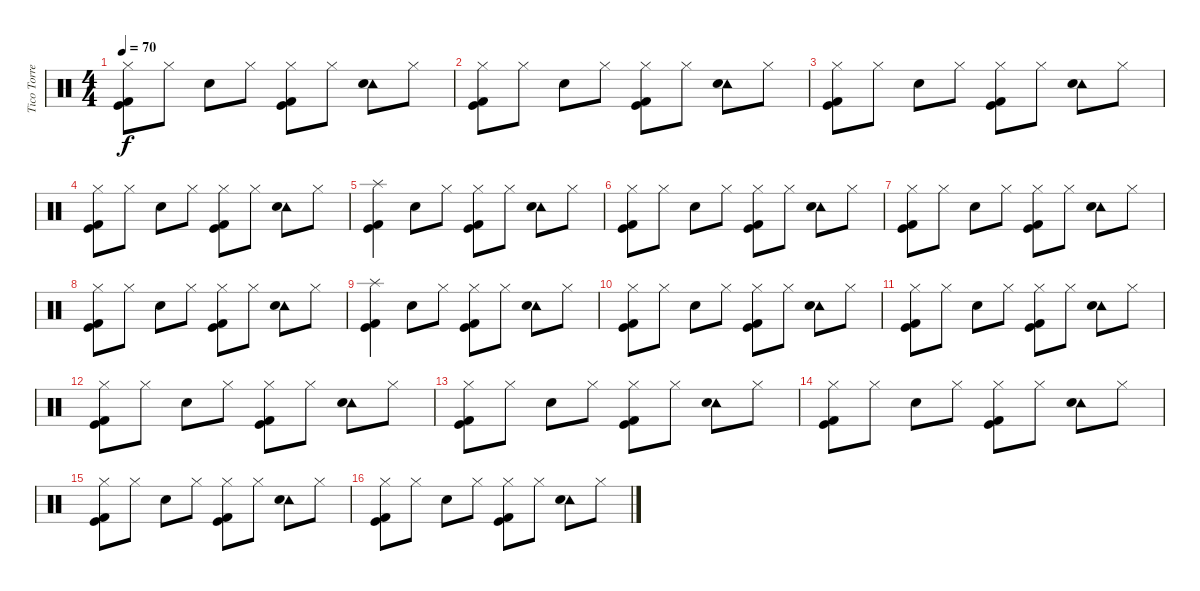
\track ("Tico Torres" "Tico Torre") {instrument percussion}
\staff {score}
\articulation defaults
\ts (4 4)
\tempo 70
\clef neutral
\ks c
("Hi-Hat (closed)" "Kick (hit) 2" "Kick (hit)").8{dy f} "Hi-Hat (closed)".8 "Snare (hit) 2".8 "Hi-Hat (closed)".8 ("Hi-Hat (closed)" "Kick (hit) 2" "Kick (hit)").8 "Hi-Hat (closed)".8 ("Tambourine (hit)" "Snare (hit) 2").8 "Hi-Hat (closed)".8 |
("Hi-Hat (closed)" "Kick (hit) 2" "Kick (hit)").8 "Hi-Hat (closed)".8 "Snare (hit) 2".8 "Hi-Hat (closed)".8 ("Hi-Hat (closed)" "Kick (hit) 2" "Kick (hit)").8 "Hi-Hat (closed)".8 ("Tambourine (hit)" "Snare (hit) 2").8 "Hi-Hat (closed)".8 |
("Hi-Hat (closed)" "Kick (hit) 2" "Kick (hit)").8 "Hi-Hat (closed)".8 "Snare (hit) 2".8 "Hi-Hat (closed)".8 ("Hi-Hat (closed)" "Kick (hit) 2" "Kick (hit)").8 "Hi-Hat (closed)".8 ("Tambourine (hit)" "Snare (hit) 2").8 "Hi-Hat (closed)".8 |
("Hi-Hat (closed)" "Kick (hit) 2" "Kick (hit)").8 "Hi-Hat (closed)".8 "Snare (hit) 2".8 "Hi-Hat (closed)".8 ("Hi-Hat (closed)" "Kick (hit) 2" "Kick (hit)").8 "Hi-Hat (closed)".8 ("Tambourine (hit)" "Snare (hit) 2").8 "Hi-Hat (closed)".8 |
("Splash (hit)" "Kick (hit) 2" "Kick (hit)").4 "Snare (hit) 2".8 "Hi-Hat (closed)".8 ("Hi-Hat (closed)" "Kick (hit) 2" "Kick (hit)").8 "Hi-Hat (closed)".8 ("Tambourine (hit)" "Snare (hit) 2").8 "Hi-Hat (closed)".8 |
("Hi-Hat (closed)" "Kick (hit) 2" "Kick (hit)").8 "Hi-Hat (closed)".8 "Snare (hit) 2".8 "Hi-Hat (closed)".8 ("Hi-Hat (closed)" "Kick (hit) 2" "Kick (hit)").8 "Hi-Hat (closed)".8 ("Tambourine (hit)" "Snare (hit) 2").8 "Hi-Hat (closed)".8 |
("Hi-Hat (closed)" "Kick (hit) 2" "Kick (hit)").8 "Hi-Hat (closed)".8 "Snare (hit) 2".8 "Hi-Hat (closed)".8 ("Hi-Hat (closed)" "Kick (hit) 2" "Kick (hit)").8 "Hi-Hat (closed)".8 ("Tambourine (hit)" "Snare (hit) 2").8 "Hi-Hat (closed)".8 |
("Hi-Hat (closed)" "Kick (hit) 2" "Kick (hit)").8 "Hi-Hat (closed)".8 "Snare (hit) 2".8 "Hi-Hat (closed)".8 ("Hi-Hat (closed)" "Kick (hit) 2" "Kick (hit)").8 "Hi-Hat (closed)".8 ("Tambourine (hit)" "Snare (hit) 2").8 "Hi-Hat (closed)".8 |
("Splash (hit)" "Kick (hit) 2" "Kick (hit)").4 "Snare (hit) 2".8 "Hi-Hat (closed)".8 ("Hi-Hat (closed)" "Kick (hit) 2" "Kick (hit)").8 "Hi-Hat (closed)".8 ("Tambourine (hit)" "Snare (hit) 2").8 "Hi-Hat (closed)".8 |
("Hi-Hat (closed)" "Kick (hit) 2" "Kick (hit)").8 "Hi-Hat (closed)".8 "Snare (hit) 2".8 "Hi-Hat (closed)".8 ("Hi-Hat (closed)" "Kick (hit) 2" "Kick (hit)").8 "Hi-Hat (closed)".8 ("Tambourine (hit)" "Snare (hit) 2").8 "Hi-Hat (closed)".8 |
("Hi-Hat (closed)" "Kick (hit) 2" "Kick (hit)").8 "Hi-Hat (closed)".8 "Snare (hit) 2".8 "Hi-Hat (closed)".8 ("Hi-Hat (closed)" "Kick (hit) 2" "Kick (hit)").8 "Hi-Hat (closed)".8 ("Tambourine (hit)" "Snare (hit) 2").8 "Hi-Hat (closed)".8 |
("Hi-Hat (closed)" "Kick (hit) 2" "Kick (hit)").8 "Hi-Hat (closed)".8 "Snare (hit) 2".8 "Hi-Hat (closed)".8 ("Hi-Hat (closed)" "Kick (hit) 2" "Kick (hit)").8 "Hi-Hat (closed)".8 ("Tambourine (hit)" "Snare (hit) 2").8 "Hi-Hat (closed)".8 |
("Hi-Hat (closed)" "Kick (hit) 2" "Kick (hit)").8 "Hi-Hat (closed)".8 "Snare (hit) 2".8 "Hi-Hat (closed)".8 ("Hi-Hat (closed)" "Kick (hit) 2" "Kick (hit)").8 "Hi-Hat (closed)".8 ("Tambourine (hit)" "Snare (hit) 2").8 "Hi-Hat (closed)".8 |
("Hi-Hat (closed)" "Kick (hit) 2" "Kick (hit)").8 "Hi-Hat (closed)".8 "Snare (hit) 2".8 "Hi-Hat (closed)".8 ("Hi-Hat (closed)" "Kick (hit) 2" "Kick (hit)").8 "Hi-Hat (closed)".8 ("Tambourine (hit)" "Snare (hit) 2").8 "Hi-Hat (closed)".8 |
("Hi-Hat (closed)" "Kick (hit) 2" "Kick (hit)").8 "Hi-Hat (closed)".8 "Snare (hit) 2".8 "Hi-Hat (closed)".8 ("Hi-Hat (closed)" "Kick (hit) 2" "Kick (hit)").8 "Hi-Hat (closed)".8 ("Tambourine (hit)" "Snare (hit) 2").8 "Hi-Hat (closed)".8 |
("Hi-Hat (closed)" "Kick (hit) 2" "Kick (hit)").8 "Hi-Hat (closed)".8 "Snare (hit) 2".8 "Hi-Hat (closed)".8 ("Hi-Hat (closed)" "Kick (hit) 2" "Kick (hit)").8 "Hi-Hat (closed)".8 ("Tambourine (hit)" "Snare (hit) 2").8 "Hi-Hat (closed)".8
